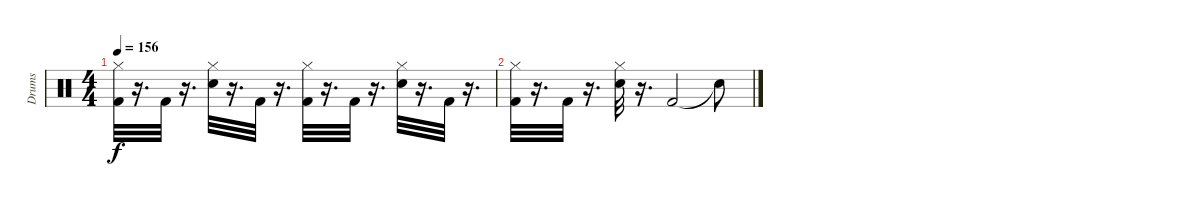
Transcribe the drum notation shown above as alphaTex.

\track ("Drums" "Drums") {instrument percussion}
\staff {score}
\articulation defaults
\ts (4 4)
\tempo 156
\clef neutral
\ks c
("Kick (hit) 2" "Hi-Hat (closed)").32{dy f} r.16{d} "Kick (hit) 2".32 r.16{d} ("Hi-Hat (closed)" "Snare (hit) 2").32 r.16{d} "Kick (hit) 2".32 r.16{d} ("Hi-Hat (closed)" "Kick (hit) 2").32 r.16{d} "Kick (hit) 2".32 r.16{d} ("Snare (hit) 2" "Hi-Hat (closed)").32 r.16{d} "Kick (hit) 2".32 r.16{d} |
("Kick (hit) 2" "Hi-Hat (closed)").32 r.16{d} "Kick (hit) 2".32 r.16{d} ("Hi-Hat (closed)" "Snare (hit) 2").32 r.16{d} "Kick (hit) 2".2 "Snare (hit)"{t}.8
